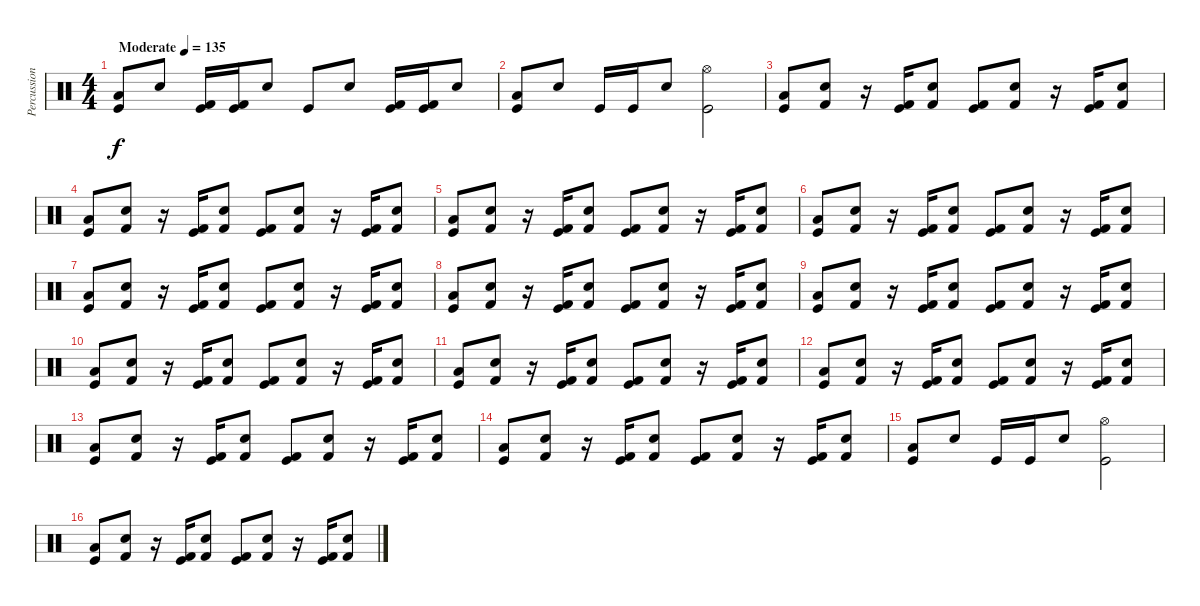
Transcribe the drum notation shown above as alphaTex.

\track ("Percussion" "Percussion") {instrument percussion}
\staff {score}
\articulation defaults
\ts (4 4)
\tempo (135 "Moderate")
\clef neutral
\ks c
("Low Tom (hit)" "Kick (hit)").8{dy f} "Snare (hit) 2".8 ("Kick (hit) 2" "Kick (hit)").16 ("Kick (hit) 2" "Kick (hit)").16 "Snare (hit) 2".8 "Kick (hit)".8 "Snare (hit) 2".8 ("Kick (hit) 2" "Kick (hit)").16 ("Kick (hit) 2" "Kick (hit)").16 "Snare (hit) 2".8 |
("Low Tom (hit)" "Kick (hit)").8 "Snare (hit) 2".8 "Kick (hit)".16 "Kick (hit)".16 "Snare (hit) 2".8 ("Hi-Hat (open)" "Kick (hit)").2 |
("Low Tom (hit)" "Kick (hit)").8 ("Kick (hit) 2" "Snare (hit) 2").8 r.16 ("Kick (hit) 2" "Kick (hit)").16 ("Kick (hit) 2" "Snare (hit) 2").8 ("Kick (hit) 2" "Kick (hit)").8 ("Kick (hit) 2" "Snare (hit) 2").8 r.16 ("Kick (hit) 2" "Kick (hit)").16 ("Kick (hit) 2" "Snare (hit) 2").8 |
("Low Tom (hit)" "Kick (hit)").8 ("Kick (hit) 2" "Snare (hit) 2").8 r.16 ("Kick (hit) 2" "Kick (hit)").16 ("Kick (hit) 2" "Snare (hit) 2").8 ("Kick (hit) 2" "Kick (hit)").8 ("Kick (hit) 2" "Snare (hit) 2").8 r.16 ("Kick (hit) 2" "Kick (hit)").16 ("Kick (hit) 2" "Snare (hit) 2").8 |
("Low Tom (hit)" "Kick (hit)").8 ("Kick (hit) 2" "Snare (hit) 2").8 r.16 ("Kick (hit) 2" "Kick (hit)").16 ("Kick (hit) 2" "Snare (hit) 2").8 ("Kick (hit) 2" "Kick (hit)").8 ("Kick (hit) 2" "Snare (hit) 2").8 r.16 ("Kick (hit) 2" "Kick (hit)").16 ("Kick (hit) 2" "Snare (hit) 2").8 |
("Low Tom (hit)" "Kick (hit)").8 ("Kick (hit) 2" "Snare (hit) 2").8 r.16 ("Kick (hit) 2" "Kick (hit)").16 ("Kick (hit) 2" "Snare (hit) 2").8 ("Kick (hit) 2" "Kick (hit)").8 ("Kick (hit) 2" "Snare (hit) 2").8 r.16 ("Kick (hit) 2" "Kick (hit)").16 ("Kick (hit) 2" "Snare (hit) 2").8 |
("Low Tom (hit)" "Kick (hit)").8 ("Kick (hit) 2" "Snare (hit) 2").8 r.16 ("Kick (hit) 2" "Kick (hit)").16 ("Kick (hit) 2" "Snare (hit) 2").8 ("Kick (hit) 2" "Kick (hit)").8 ("Kick (hit) 2" "Snare (hit) 2").8 r.16 ("Kick (hit) 2" "Kick (hit)").16 ("Kick (hit) 2" "Snare (hit) 2").8 |
("Low Tom (hit)" "Kick (hit)").8 ("Kick (hit) 2" "Snare (hit) 2").8 r.16 ("Kick (hit) 2" "Kick (hit)").16 ("Kick (hit) 2" "Snare (hit) 2").8 ("Kick (hit) 2" "Kick (hit)").8 ("Kick (hit) 2" "Snare (hit) 2").8 r.16 ("Kick (hit) 2" "Kick (hit)").16 ("Kick (hit) 2" "Snare (hit) 2").8 |
("Low Tom (hit)" "Kick (hit)").8 ("Kick (hit) 2" "Snare (hit) 2").8 r.16 ("Kick (hit) 2" "Kick (hit)").16 ("Kick (hit) 2" "Snare (hit) 2").8 ("Kick (hit) 2" "Kick (hit)").8 ("Kick (hit) 2" "Snare (hit) 2").8 r.16 ("Kick (hit) 2" "Kick (hit)").16 ("Kick (hit) 2" "Snare (hit) 2").8 |
("Low Tom (hit)" "Kick (hit)").8 ("Kick (hit) 2" "Snare (hit) 2").8 r.16 ("Kick (hit) 2" "Kick (hit)").16 ("Kick (hit) 2" "Snare (hit) 2").8 ("Kick (hit) 2" "Kick (hit)").8 ("Kick (hit) 2" "Snare (hit) 2").8 r.16 ("Kick (hit) 2" "Kick (hit)").16 ("Kick (hit) 2" "Snare (hit) 2").8 |
("Low Tom (hit)" "Kick (hit)").8 ("Kick (hit) 2" "Snare (hit) 2").8 r.16 ("Kick (hit) 2" "Kick (hit)").16 ("Kick (hit) 2" "Snare (hit) 2").8 ("Kick (hit) 2" "Kick (hit)").8 ("Kick (hit) 2" "Snare (hit) 2").8 r.16 ("Kick (hit) 2" "Kick (hit)").16 ("Kick (hit) 2" "Snare (hit) 2").8 |
("Low Tom (hit)" "Kick (hit)").8 ("Kick (hit) 2" "Snare (hit) 2").8 r.16 ("Kick (hit) 2" "Kick (hit)").16 ("Kick (hit) 2" "Snare (hit) 2").8 ("Kick (hit) 2" "Kick (hit)").8 ("Kick (hit) 2" "Snare (hit) 2").8 r.16 ("Kick (hit) 2" "Kick (hit)").16 ("Kick (hit) 2" "Snare (hit) 2").8 |
("Low Tom (hit)" "Kick (hit)").8 ("Kick (hit) 2" "Snare (hit) 2").8 r.16 ("Kick (hit) 2" "Kick (hit)").16 ("Kick (hit) 2" "Snare (hit) 2").8 ("Kick (hit) 2" "Kick (hit)").8 ("Kick (hit) 2" "Snare (hit) 2").8 r.16 ("Kick (hit) 2" "Kick (hit)").16 ("Kick (hit) 2" "Snare (hit) 2").8 |
("Low Tom (hit)" "Kick (hit)").8 ("Kick (hit) 2" "Snare (hit) 2").8 r.16 ("Kick (hit) 2" "Kick (hit)").16 ("Kick (hit) 2" "Snare (hit) 2").8 ("Kick (hit) 2" "Kick (hit)").8 ("Kick (hit) 2" "Snare (hit) 2").8 r.16 ("Kick (hit) 2" "Kick (hit)").16 ("Kick (hit) 2" "Snare (hit) 2").8 |
("Low Tom (hit)" "Kick (hit)").8 "Snare (hit) 2".8 "Kick (hit)".16 "Kick (hit)".16 "Snare (hit) 2".8 ("Hi-Hat (open)" "Kick (hit)").2 |
("Low Tom (hit)" "Kick (hit)").8 ("Kick (hit) 2" "Snare (hit) 2").8 r.16 ("Kick (hit) 2" "Kick (hit)").16 ("Kick (hit) 2" "Snare (hit) 2").8 ("Kick (hit) 2" "Kick (hit)").8 ("Kick (hit) 2" "Snare (hit) 2").8 r.16 ("Kick (hit) 2" "Kick (hit)").16 ("Kick (hit) 2" "Snare (hit) 2").8
